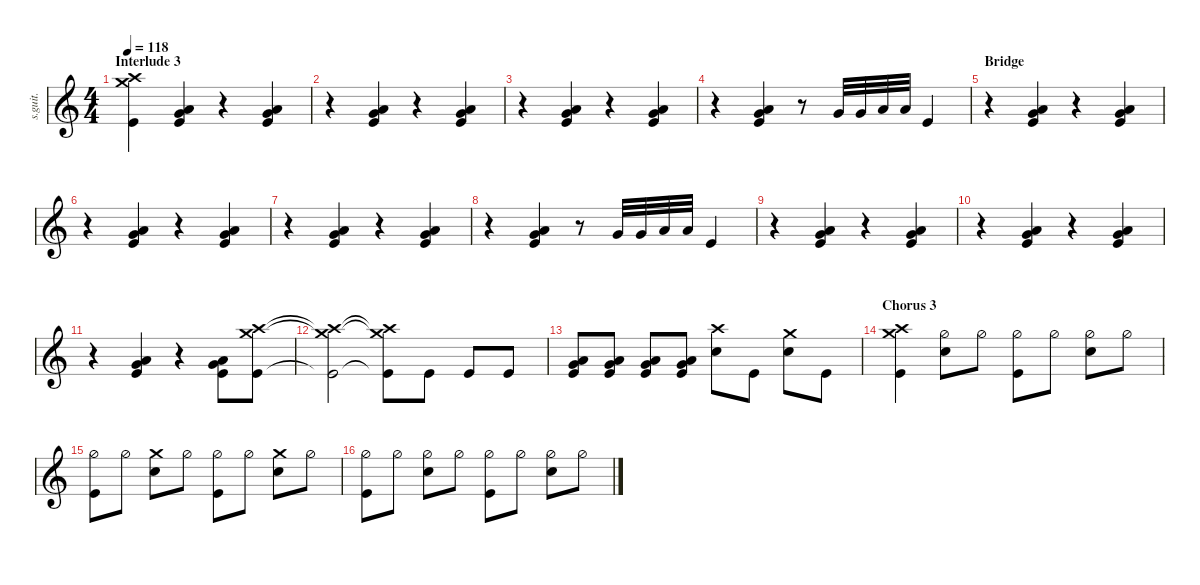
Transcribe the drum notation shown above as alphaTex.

\defaultSystemsLayout 4
\hideDynamics
\bracketExtendMode nobrackets
\track ("Drums [Arin Ilejay]" "s.guit.") {instrument percussion}
\staff {score}
\articulation defaults
\ts (4 4)
\section ("" "Interlude 3")
\tempo 118
\clef g2
\ks c
("Crash high (hit)" "Crash medium (hit)" "Kick (hit)").4{lyrics (0 "") lyrics (1 "") lyrics (2 "") lyrics (3 "") lyrics (4 "") dy mp} ("Very Low Tom (hit)" "Low Floor Tom (hit)" "Kick (hit)").4{lyrics (0 "") lyrics (1 "") lyrics (2 "") lyrics (3 "") lyrics (4 "")} r.4 ("Very Low Tom (hit)" "Low Floor Tom (hit)" "Kick (hit)").4{lyrics (0 "") lyrics (1 "") lyrics (2 "") lyrics (3 "") lyrics (4 "")} |
r.4 ("Very Low Tom (hit)" "Low Floor Tom (hit)" "Kick (hit)").4{lyrics (0 "") lyrics (1 "") lyrics (2 "") lyrics (3 "") lyrics (4 "")} r.4 ("Very Low Tom (hit)" "Low Floor Tom (hit)" "Kick (hit)").4{lyrics (0 "") lyrics (1 "") lyrics (2 "") lyrics (3 "") lyrics (4 "")} |
r.4 ("Very Low Tom (hit)" "Low Floor Tom (hit)" "Kick (hit)").4{lyrics (0 "") lyrics (1 "") lyrics (2 "") lyrics (3 "") lyrics (4 "")} r.4 ("Very Low Tom (hit)" "Low Floor Tom (hit)" "Kick (hit)").4{lyrics (0 "") lyrics (1 "") lyrics (2 "") lyrics (3 "") lyrics (4 "")} |
r.4 ("Very Low Tom (hit)" "Low Floor Tom (hit)" "Kick (hit)").4{lyrics (0 "") lyrics (1 "") lyrics (2 "") lyrics (3 "") lyrics (4 "")} r.8 "Very Low Tom (hit)".32{lyrics (0 "") lyrics (1 "") lyrics (2 "") lyrics (3 "") lyrics (4 "")} "Very Low Tom (hit)".32{lyrics (0 "") lyrics (1 "") lyrics (2 "") lyrics (3 "") lyrics (4 "")} "Low Floor Tom (hit)".32{lyrics (0 "") lyrics (1 "") lyrics (2 "") lyrics (3 "") lyrics (4 "")} "Low Floor Tom (hit)".32{lyrics (0 "") lyrics (1 "") lyrics (2 "") lyrics (3 "") lyrics (4 "")} "Kick (hit)".4{lyrics (0 "") lyrics (1 "") lyrics (2 "") lyrics (3 "") lyrics (4 "")} |
\section ("" "Bridge")
r.4 ("Very Low Tom (hit)" "Low Floor Tom (hit)" "Kick (hit)").4{lyrics (0 "") lyrics (1 "") lyrics (2 "") lyrics (3 "") lyrics (4 "")} r.4 ("Very Low Tom (hit)" "Low Floor Tom (hit)" "Kick (hit)").4{lyrics (0 "") lyrics (1 "") lyrics (2 "") lyrics (3 "") lyrics (4 "")} |
r.4 ("Very Low Tom (hit)" "Low Floor Tom (hit)" "Kick (hit)").4{lyrics (0 "") lyrics (1 "") lyrics (2 "") lyrics (3 "") lyrics (4 "")} r.4 ("Very Low Tom (hit)" "Low Floor Tom (hit)" "Kick (hit)").4{lyrics (0 "") lyrics (1 "") lyrics (2 "") lyrics (3 "") lyrics (4 "")} |
r.4 ("Very Low Tom (hit)" "Low Floor Tom (hit)" "Kick (hit)").4{lyrics (0 "") lyrics (1 "") lyrics (2 "") lyrics (3 "") lyrics (4 "")} r.4 ("Very Low Tom (hit)" "Low Floor Tom (hit)" "Kick (hit)").4{lyrics (0 "") lyrics (1 "") lyrics (2 "") lyrics (3 "") lyrics (4 "")} |
r.4 ("Very Low Tom (hit)" "Low Floor Tom (hit)" "Kick (hit)").4{lyrics (0 "") lyrics (1 "") lyrics (2 "") lyrics (3 "") lyrics (4 "")} r.8 "Very Low Tom (hit)".32{lyrics (0 "") lyrics (1 "") lyrics (2 "") lyrics (3 "") lyrics (4 "")} "Very Low Tom (hit)".32{lyrics (0 "") lyrics (1 "") lyrics (2 "") lyrics (3 "") lyrics (4 "")} "Low Floor Tom (hit)".32{lyrics (0 "") lyrics (1 "") lyrics (2 "") lyrics (3 "") lyrics (4 "")} "Low Floor Tom (hit)".32{lyrics (0 "") lyrics (1 "") lyrics (2 "") lyrics (3 "") lyrics (4 "")} "Kick (hit)".4{lyrics (0 "") lyrics (1 "") lyrics (2 "") lyrics (3 "") lyrics (4 "")} |
r.4 ("Very Low Tom (hit)" "Low Floor Tom (hit)" "Kick (hit)").4{lyrics (0 "") lyrics (1 "") lyrics (2 "") lyrics (3 "") lyrics (4 "")} r.4 ("Very Low Tom (hit)" "Low Floor Tom (hit)" "Kick (hit)").4{lyrics (0 "") lyrics (1 "") lyrics (2 "") lyrics (3 "") lyrics (4 "")} |
r.4 ("Very Low Tom (hit)" "Low Floor Tom (hit)" "Kick (hit)").4{lyrics (0 "") lyrics (1 "") lyrics (2 "") lyrics (3 "") lyrics (4 "")} r.4 ("Very Low Tom (hit)" "Low Floor Tom (hit)" "Kick (hit)").4{lyrics (0 "") lyrics (1 "") lyrics (2 "") lyrics (3 "") lyrics (4 "")} |
r.4 ("Very Low Tom (hit)" "Low Floor Tom (hit)" "Kick (hit)").4{lyrics (0 "") lyrics (1 "") lyrics (2 "") lyrics (3 "") lyrics (4 "")} r.4 ("Very Low Tom (hit)" "Low Floor Tom (hit)" "Kick (hit)").8{lyrics (0 "") lyrics (1 "") lyrics (2 "") lyrics (3 "") lyrics (4 "")} ("Crash high (hit)" "Crash medium (hit)" "Kick (hit)").8{lyrics (0 "") lyrics (1 "") lyrics (2 "") lyrics (3 "") lyrics (4 "")} |
("Crash high (hit)"{t} "Crash medium (hit)"{t} "Kick (hit)"{t}).2{lyrics (0 "") lyrics (1 "") lyrics (2 "") lyrics (3 "") lyrics (4 "")} ("Crash high (hit)"{t} "Crash medium (hit)"{t} "Kick (hit)"{t}).8{lyrics (0 "") lyrics (1 "") lyrics (2 "") lyrics (3 "") lyrics (4 "")} "Kick (hit)".8{lyrics (0 "") lyrics (1 "") lyrics (2 "") lyrics (3 "") lyrics (4 "")} "Kick (hit)".8{lyrics (0 "") lyrics (1 "") lyrics (2 "") lyrics (3 "") lyrics (4 "")} "Kick (hit)".8{lyrics (0 "") lyrics (1 "") lyrics (2 "") lyrics (3 "") lyrics (4 "")} |
("Low Tom (hit)" "Very Low Tom (hit)" "Kick (hit)").8{lyrics (0 "") lyrics (1 "") lyrics (2 "") lyrics (3 "") lyrics (4 "")} ("Low Tom (hit)" "Very Low Tom (hit)" "Kick (hit)").8{lyrics (0 "") lyrics (1 "") lyrics (2 "") lyrics (3 "") lyrics (4 "")} ("Low Tom (hit)" "Very Low Tom (hit)" "Kick (hit)").8{lyrics (0 "") lyrics (1 "") lyrics (2 "") lyrics (3 "") lyrics (4 "")} ("Low Tom (hit)" "Very Low Tom (hit)" "Kick (hit)").8{lyrics (0 "") lyrics (1 "") lyrics (2 "") lyrics (3 "") lyrics (4 "")} ("Crash high (hit)" "Snare (hit) 2").8{lyrics (0 "") lyrics (1 "") lyrics (2 "") lyrics (3 "") lyrics (4 "") dy f} "Kick (hit)".8{lyrics (0 "") lyrics (1 "") lyrics (2 "") lyrics (3 "") lyrics (4 "")} ("Crash medium (hit)" "Snare (hit) 2").8{lyrics (0 "") lyrics (1 "") lyrics (2 "") lyrics (3 "") lyrics (4 "")} "Kick (hit)".8{lyrics (0 "") lyrics (1 "") lyrics (2 "") lyrics (3 "") lyrics (4 "")} |
\section ("" "Chorus 3")
("Crash high (hit)" "Crash medium (hit)" "Kick (hit)").4{lyrics (0 "") lyrics (1 "") lyrics (2 "") lyrics (3 "") lyrics (4 "")} ("Hi-Hat (half)" "Snare (hit) 2").8{lyrics (0 "") lyrics (1 "") lyrics (2 "") lyrics (3 "") lyrics (4 "")} "Hi-Hat (half)".8{lyrics (0 "") lyrics (1 "") lyrics (2 "") lyrics (3 "") lyrics (4 "")} ("Hi-Hat (half)" "Kick (hit)").8{lyrics (0 "") lyrics (1 "") lyrics (2 "") lyrics (3 "") lyrics (4 "")} "Hi-Hat (half)".8{lyrics (0 "") lyrics (1 "") lyrics (2 "") lyrics (3 "") lyrics (4 "")} ("Hi-Hat (half)" "Snare (hit) 2").8{lyrics (0 "") lyrics (1 "") lyrics (2 "") lyrics (3 "") lyrics (4 "")} "Hi-Hat (half)".8{lyrics (0 "") lyrics (1 "") lyrics (2 "") lyrics (3 "") lyrics (4 "")} |
("Hi-Hat (half)" "Kick (hit)").8{lyrics (0 "") lyrics (1 "") lyrics (2 "") lyrics (3 "") lyrics (4 "")} "Hi-Hat (half)".8{lyrics (0 "") lyrics (1 "") lyrics (2 "") lyrics (3 "") lyrics (4 "")} ("Crash medium (hit)" "Snare (hit) 2").8{lyrics (0 "") lyrics (1 "") lyrics (2 "") lyrics (3 "") lyrics (4 "")} "Hi-Hat (half)".8{lyrics (0 "") lyrics (1 "") lyrics (2 "") lyrics (3 "") lyrics (4 "")} ("Hi-Hat (half)" "Kick (hit)").8{lyrics (0 "") lyrics (1 "") lyrics (2 "") lyrics (3 "") lyrics (4 "")} "Hi-Hat (half)".8{lyrics (0 "") lyrics (1 "") lyrics (2 "") lyrics (3 "") lyrics (4 "")} ("Crash medium (hit)" "Snare (hit) 2").8{lyrics (0 "") lyrics (1 "") lyrics (2 "") lyrics (3 "") lyrics (4 "")} "Hi-Hat (half)".8{lyrics (0 "") lyrics (1 "") lyrics (2 "") lyrics (3 "") lyrics (4 "")} |
("Hi-Hat (half)" "Kick (hit)").8{lyrics (0 "") lyrics (1 "") lyrics (2 "") lyrics (3 "") lyrics (4 "")} "Hi-Hat (half)".8{lyrics (0 "") lyrics (1 "") lyrics (2 "") lyrics (3 "") lyrics (4 "")} ("Hi-Hat (half)" "Snare (hit) 2").8{lyrics (0 "") lyrics (1 "") lyrics (2 "") lyrics (3 "") lyrics (4 "")} "Hi-Hat (half)".8{lyrics (0 "") lyrics (1 "") lyrics (2 "") lyrics (3 "") lyrics (4 "")} ("Hi-Hat (half)" "Kick (hit)").8{lyrics (0 "") lyrics (1 "") lyrics (2 "") lyrics (3 "") lyrics (4 "")} "Hi-Hat (half)".8{lyrics (0 "") lyrics (1 "") lyrics (2 "") lyrics (3 "") lyrics (4 "")} ("Hi-Hat (half)" "Snare (hit) 2").8{lyrics (0 "") lyrics (1 "") lyrics (2 "") lyrics (3 "") lyrics (4 "")} "Hi-Hat (half)".8{lyrics (0 "") lyrics (1 "") lyrics (2 "") lyrics (3 "") lyrics (4 "")}
